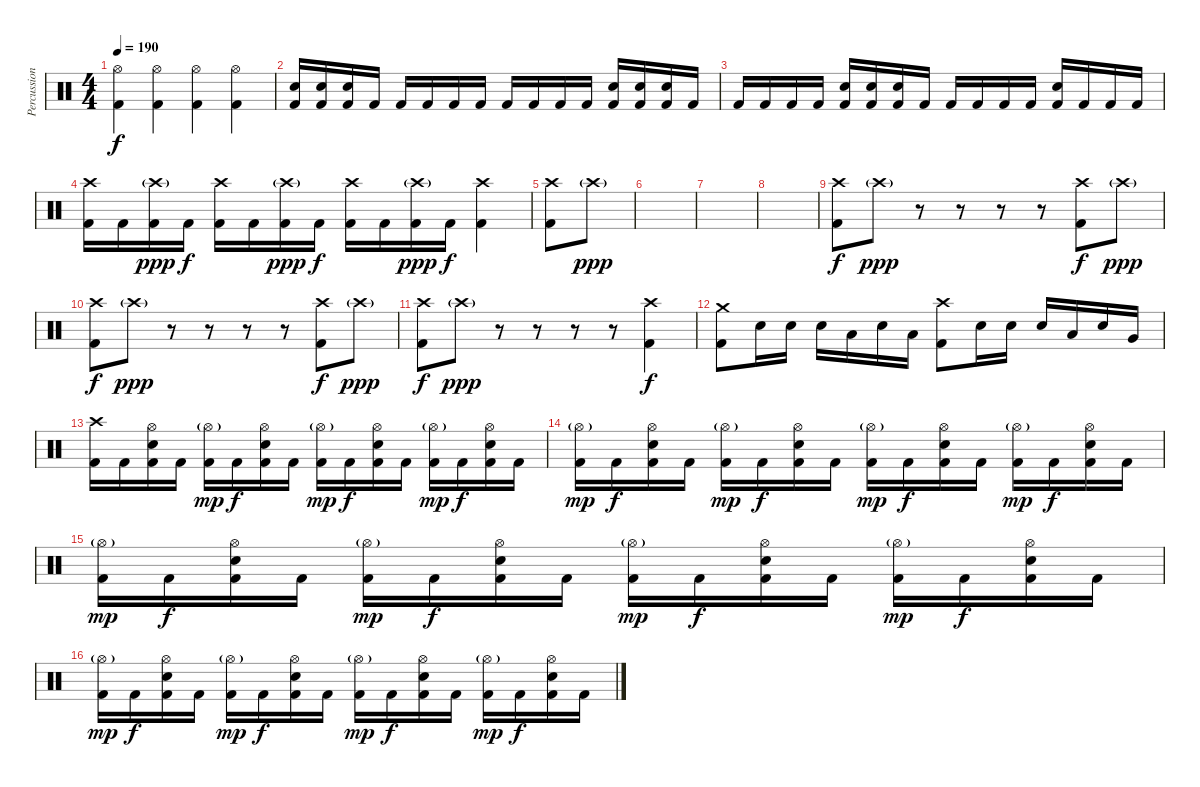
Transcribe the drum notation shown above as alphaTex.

\track ("Percussion" "Percussion") {instrument percussion}
\staff {score}
\articulation defaults
\ts (4 4)
\tempo 190
\clef neutral
\ks c
("Hi-Hat (open)" "Kick (hit) 2").4{dy f} ("Hi-Hat (open)" "Kick (hit) 2").4 ("Hi-Hat (open)" "Kick (hit) 2").4 ("Hi-Hat (open)" "Kick (hit) 2").4 |
("Electric Snare (hit)" "Kick (hit) 2").16 ("Electric Snare (hit)" "Kick (hit) 2").16 ("Electric Snare (hit)" "Kick (hit) 2").16 "Kick (hit) 2".16 "Kick (hit) 2".16 "Kick (hit) 2".16 "Kick (hit) 2".16 "Kick (hit) 2".16 "Kick (hit) 2".16 "Kick (hit) 2".16 "Kick (hit) 2".16 "Kick (hit) 2".16 ("Electric Snare (hit)" "Kick (hit) 2").16 ("Electric Snare (hit)" "Kick (hit) 2").16 ("Electric Snare (hit)" "Kick (hit) 2").16 "Kick (hit) 2".16 |
"Kick (hit) 2".16 "Kick (hit) 2".16 "Kick (hit) 2".16 "Kick (hit) 2".16 ("Electric Snare (hit)" "Kick (hit) 2").16 ("Electric Snare (hit)" "Kick (hit) 2").16 ("Electric Snare (hit)" "Kick (hit) 2").16 "Kick (hit) 2".16 "Kick (hit) 2".16 "Kick (hit) 2".16 "Kick (hit) 2".16 "Kick (hit) 2".16 ("Electric Snare (hit)" "Kick (hit) 2").16 "Kick (hit) 2".16 "Kick (hit) 2".16 "Kick (hit) 2".16 |
("Crash high (hit)" "Kick (hit) 2").16 "Kick (hit) 2".16 ("Crash high (hit)"{g} "Kick (hit) 2").16{dy ppp} "Kick (hit) 2".16{dy f} ("Crash high (hit)" "Kick (hit) 2").16 "Kick (hit) 2".16 ("Crash high (hit)"{g} "Kick (hit) 2").16{dy ppp} "Kick (hit) 2".16{dy f} ("Crash high (hit)" "Kick (hit) 2").16 "Kick (hit) 2".16 ("Crash high (hit)"{g} "Kick (hit) 2").16{dy ppp} "Kick (hit) 2".16{dy f} ("Crash high (hit)" "Kick (hit) 2").4 |
("Crash high (hit)" "Kick (hit) 2").8 "Crash high (hit)"{g}.8{dy ppp} |
|
|
|
("Crash high (hit)" "Kick (hit) 2").8{dy f} "Crash high (hit)"{g}.8{dy ppp} r.8 r.8 r.8 r.8 ("Crash high (hit)" "Kick (hit) 2").8{dy f} "Crash high (hit)"{g}.8{dy ppp} |
("Crash high (hit)" "Kick (hit) 2").8{dy f} "Crash high (hit)"{g}.8{dy ppp} r.8 r.8 r.8 r.8 ("Crash high (hit)" "Kick (hit) 2").8{dy f} "Crash high (hit)"{g}.8{dy ppp} |
("Crash high (hit)" "Kick (hit) 2").8{dy f} "Crash high (hit)"{g}.8{dy ppp} r.8 r.8 r.8 r.8 ("Crash high (hit)" "Kick (hit) 2").4{dy f} |
("Crash medium (hit)" "Kick (hit) 2").8 "Electric Snare (hit)".16 "Electric Snare (hit)".16 "Electric Snare (hit)".16 "Low Tom (hit)".16 "Electric Snare (hit)".16 "Low Tom (hit)".16 ("Crash high (hit)" "Kick (hit) 2").8 "Electric Snare (hit)".16 "Electric Snare (hit)".16 "Electric Snare (hit)".16 "Low Tom (hit)".16 "Electric Snare (hit)".16 "Very Low Tom (hit)".16 |
("Crash high (hit)" "Kick (hit) 2").16 "Kick (hit) 2".16 ("Hi-Hat (open)" "Electric Snare (hit)" "Kick (hit) 2").16 "Kick (hit) 2".16 ("Hi-Hat (open)"{g} "Kick (hit) 2").16{dy mp} "Kick (hit) 2".16{dy f} ("Hi-Hat (open)" "Electric Snare (hit)" "Kick (hit) 2").16 "Kick (hit) 2".16 ("Hi-Hat (open)"{g} "Kick (hit) 2").16{dy mp} "Kick (hit) 2".16{dy f} ("Hi-Hat (open)" "Electric Snare (hit)" "Kick (hit) 2").16 "Kick (hit) 2".16 ("Hi-Hat (open)"{g} "Kick (hit) 2").16{dy mp} "Kick (hit) 2".16{dy f} ("Hi-Hat (open)" "Electric Snare (hit)" "Kick (hit) 2").16 "Kick (hit) 2".16 |
("Hi-Hat (open)"{g} "Kick (hit) 2").16{dy mp} "Kick (hit) 2".16{dy f} ("Hi-Hat (open)" "Electric Snare (hit)" "Kick (hit) 2").16 "Kick (hit) 2".16 ("Hi-Hat (open)"{g} "Kick (hit) 2").16{dy mp} "Kick (hit) 2".16{dy f} ("Hi-Hat (open)" "Electric Snare (hit)" "Kick (hit) 2").16 "Kick (hit) 2".16 ("Hi-Hat (open)"{g} "Kick (hit) 2").16{dy mp} "Kick (hit) 2".16{dy f} ("Hi-Hat (open)" "Electric Snare (hit)" "Kick (hit) 2").16 "Kick (hit) 2".16 ("Hi-Hat (open)"{g} "Kick (hit) 2").16{dy mp} "Kick (hit) 2".16{dy f} ("Hi-Hat (open)" "Electric Snare (hit)" "Kick (hit) 2").16 "Kick (hit) 2".16 |
("Hi-Hat (open)"{g} "Kick (hit) 2").16{dy mp} "Kick (hit) 2".16{dy f} ("Hi-Hat (open)" "Electric Snare (hit)" "Kick (hit) 2").16 "Kick (hit) 2".16 ("Hi-Hat (open)"{g} "Kick (hit) 2").16{dy mp} "Kick (hit) 2".16{dy f} ("Hi-Hat (open)" "Electric Snare (hit)" "Kick (hit) 2").16 "Kick (hit) 2".16 ("Hi-Hat (open)"{g} "Kick (hit) 2").16{dy mp} "Kick (hit) 2".16{dy f} ("Hi-Hat (open)" "Electric Snare (hit)" "Kick (hit) 2").16 "Kick (hit) 2".16 ("Hi-Hat (open)"{g} "Kick (hit) 2").16{dy mp} "Kick (hit) 2".16{dy f} ("Hi-Hat (open)" "Electric Snare (hit)" "Kick (hit) 2").16 "Kick (hit) 2".16 |
("Hi-Hat (open)"{g} "Kick (hit) 2").16{dy mp} "Kick (hit) 2".16{dy f} ("Hi-Hat (open)" "Electric Snare (hit)" "Kick (hit) 2").16 "Kick (hit) 2".16 ("Hi-Hat (open)"{g} "Kick (hit) 2").16{dy mp} "Kick (hit) 2".16{dy f} ("Hi-Hat (open)" "Electric Snare (hit)" "Kick (hit) 2").16 "Kick (hit) 2".16 ("Hi-Hat (open)"{g} "Kick (hit) 2").16{dy mp} "Kick (hit) 2".16{dy f} ("Hi-Hat (open)" "Electric Snare (hit)" "Kick (hit) 2").16 "Kick (hit) 2".16 ("Hi-Hat (open)"{g} "Kick (hit) 2").16{dy mp} "Kick (hit) 2".16{dy f} ("Hi-Hat (open)" "Electric Snare (hit)" "Kick (hit) 2").16 "Kick (hit) 2".16
